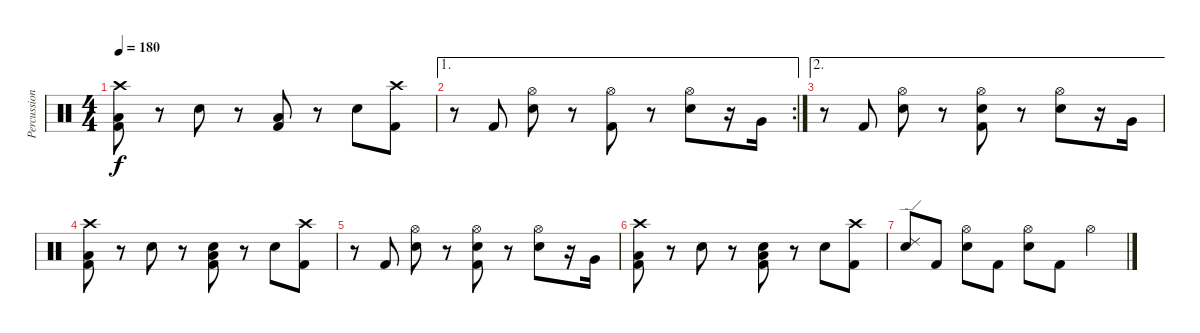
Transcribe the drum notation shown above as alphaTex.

\track ("Percussion" "Percussion") {instrument percussion}
\staff {score}
\articulation defaults
\ts (4 4)
\tempo 180
\clef neutral
\ks c
("Crash high (hit)" "Low Floor Tom (hit)" "Kick (hit) 2").8{dy f} r.8 "Electric Snare (hit)".8 r.8 ("Low Floor Tom (hit)" "Kick (hit) 2").8 r.8 "Electric Snare (hit)".8 ("Crash high (hit)" "Kick (hit) 2").8 |
\ae 1
\rc 2
r.8 "Kick (hit) 2".8 ("Hi-Hat (open)" "Electric Snare (hit)").8 r.8 ("Hi-Hat (open)" "Kick (hit) 2").8 r.8 ("Hi-Hat (open)" "Electric Snare (hit)").8 r.16 "Very Low Tom (hit)".16 |
\ae 2
r.8 "Kick (hit) 2".8 ("Hi-Hat (open)" "Electric Snare (hit)").8 r.8 ("Hi-Hat (open)" "Electric Snare (hit)" "Kick (hit) 2").8 r.8 ("Hi-Hat (open)" "Electric Snare (hit)").8 r.16 "Very Low Tom (hit)".16 |
("Crash high (hit)" "Low Floor Tom (hit)" "Kick (hit) 2").8 r.8 "Electric Snare (hit)".8 r.8 ("Electric Snare (hit)" "Low Floor Tom (hit)" "Kick (hit) 2").8 r.8 "Electric Snare (hit)".8 ("Crash high (hit)" "Kick (hit) 2").8 |
r.8 "Kick (hit) 2".8 ("Hi-Hat (open)" "Electric Snare (hit)").8 r.8 ("Hi-Hat (open)" "Electric Snare (hit)" "Kick (hit) 2").8 r.8 ("Hi-Hat (open)" "Electric Snare (hit)").8 r.16 "Very Low Tom (hit)".16 |
("Crash high (hit)" "Low Floor Tom (hit)" "Kick (hit) 2").8 r.8 "Electric Snare (hit)".8 r.8 ("Electric Snare (hit)" "Low Floor Tom (hit)" "Kick (hit) 2").8 r.8 "Electric Snare (hit)".8 ("Crash high (hit)" "Kick (hit) 2").8 |
("Ride (edge) 2" "Electric Snare (hit)").8 "Kick (hit) 2".8 ("Hi-Hat (open)" "Electric Snare (hit)").8 "Kick (hit) 2".8 ("Hi-Hat (open)" "Electric Snare (hit)").8 "Kick (hit) 2".8 "Hi-Hat (open)".4
